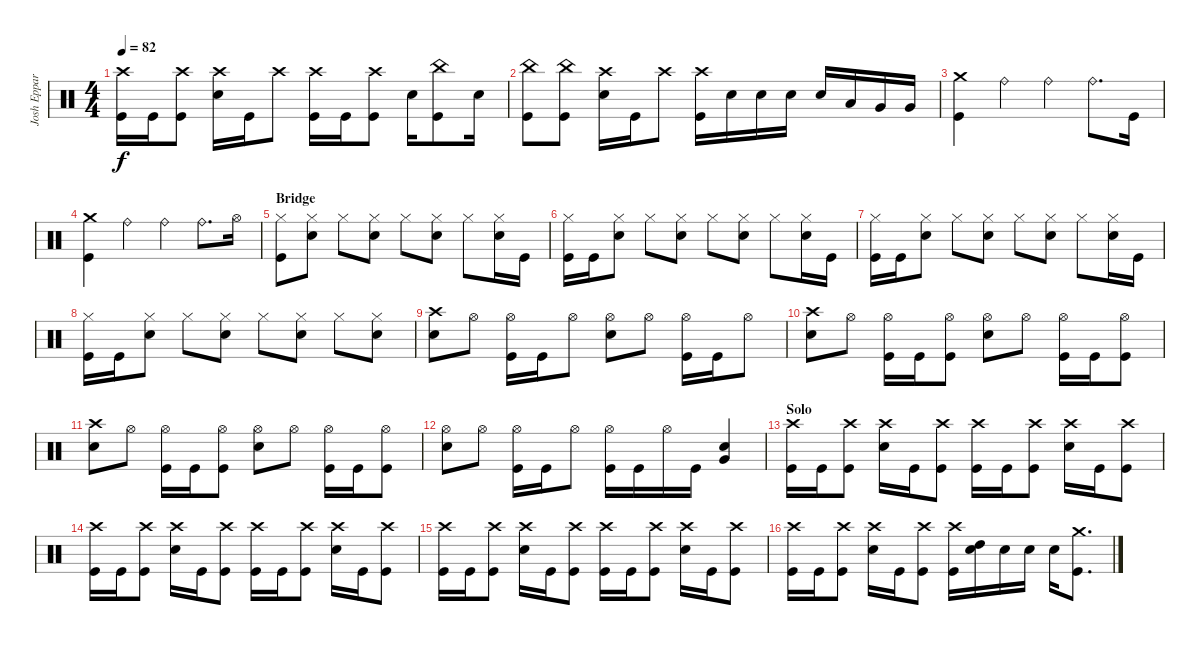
\track ("Josh Eppard" "Josh Eppar") {instrument percussion}
\staff {score}
\articulation defaults
\ts (4 4)
\tempo 82
\clef neutral
\ks c
("Crash high (hit)" "Kick (hit)").16{dy f} "Kick (hit)".16 ("Crash high (hit)" "Kick (hit)").8 ("Crash high (hit)" "Snare (hit) 2").16 "Kick (hit)".16 "Crash high (hit)".8 ("Crash high (hit)" "Kick (hit)").16 "Kick (hit)".16 ("Crash high (hit)" "Kick (hit)").8 "Snare (hit) 2".16 ("Kick (hit)" "China (hit)").8 "Snare (hit) 2".16 |
("Kick (hit)" "China (hit)").8 ("Kick (hit)" "China (hit)").8 ("Crash high (hit)" "Snare (hit) 2").16 "Kick (hit)".16 "Crash high (hit)".8 ("Crash high (hit)" "Kick (hit)").16 "Snare (hit) 2".16 "Snare (hit) 2".16 "Snare (hit) 2".16 "Snare (hit) 2".16 "Low Tom (hit)".16 "Very Low Tom (hit)".16 "Very Low Tom (hit)".16 |
("Kick (hit)" "Crash medium (hit)").4 "Ride (bell)".4 "Ride (bell)".4 "Ride (bell)".8{d} "Kick (hit)".16 |
("Kick (hit)" "Crash medium (hit)").4 "Ride (bell)".4 "Ride (bell)".4 "Ride (bell)".8{d} "Hi-Hat (open)".16 |
\section ("" "Bridge")
("Hi-Hat (closed)" "Kick (hit)").8 ("Snare (hit) 2" "Hi-Hat (closed)").8 "Hi-Hat (closed)".8 ("Hi-Hat (closed)" "Snare (hit) 2").8 "Hi-Hat (closed)".8 ("Hi-Hat (closed)" "Snare (hit) 2").8 "Hi-Hat (closed)".8 ("Hi-Hat (closed)" "Snare (hit) 2").16 "Kick (hit)".16 |
("Hi-Hat (closed)" "Kick (hit)").16 "Kick (hit)".16 ("Snare (hit) 2" "Hi-Hat (closed)").8 "Hi-Hat (closed)".8 ("Hi-Hat (closed)" "Snare (hit) 2").8 "Hi-Hat (closed)".8 ("Hi-Hat (closed)" "Snare (hit) 2").8 "Hi-Hat (closed)".8 ("Hi-Hat (closed)" "Snare (hit) 2").16 "Kick (hit)".16 |
("Hi-Hat (closed)" "Kick (hit)").16 "Kick (hit)".16 ("Snare (hit) 2" "Hi-Hat (closed)").8 "Hi-Hat (closed)".8 ("Hi-Hat (closed)" "Snare (hit) 2").8 "Hi-Hat (closed)".8 ("Hi-Hat (closed)" "Snare (hit) 2").8 "Hi-Hat (closed)".8 ("Hi-Hat (closed)" "Snare (hit) 2").16 "Kick (hit)".16 |
("Hi-Hat (closed)" "Kick (hit)").16 "Kick (hit)".16 ("Snare (hit) 2" "Hi-Hat (closed)").8 "Hi-Hat (closed)".8 ("Hi-Hat (closed)" "Snare (hit) 2").8 "Hi-Hat (closed)".8 ("Hi-Hat (closed)" "Snare (hit) 2").8 "Hi-Hat (closed)".8 ("Hi-Hat (closed)" "Snare (hit) 2").8 |
("Crash high (hit)" "Snare (hit) 2").8 "Hi-Hat (open)".8 ("Hi-Hat (open)" "Kick (hit)").16 "Kick (hit)".16 "Hi-Hat (open)".8 ("Hi-Hat (open)" "Snare (hit) 2").8 "Hi-Hat (open)".8 ("Hi-Hat (open)" "Kick (hit)").16 "Kick (hit)".16 "Hi-Hat (open)".8 |
("Crash high (hit)" "Snare (hit) 2").8 "Hi-Hat (open)".8 ("Hi-Hat (open)" "Kick (hit)").16 "Kick (hit)".16 ("Hi-Hat (open)" "Kick (hit)").8 ("Hi-Hat (open)" "Snare (hit) 2").8 "Hi-Hat (open)".8 ("Hi-Hat (open)" "Kick (hit)").16 "Kick (hit)".16 ("Hi-Hat (open)" "Kick (hit)").8 |
("Crash high (hit)" "Snare (hit) 2").8 "Hi-Hat (open)".8 ("Hi-Hat (open)" "Kick (hit)").16 "Kick (hit)".16 ("Hi-Hat (open)" "Kick (hit)").8 ("Hi-Hat (open)" "Snare (hit) 2").8 "Hi-Hat (open)".8 ("Hi-Hat (open)" "Kick (hit)").16 "Kick (hit)".16 ("Hi-Hat (open)" "Kick (hit)").8 |
("Snare (hit) 2" "Hi-Hat (open)").8 "Hi-Hat (open)".8 ("Hi-Hat (open)" "Kick (hit)").16 "Kick (hit)".16 "Hi-Hat (open)".8 ("Hi-Hat (open)" "Kick (hit)").16 "Kick (hit)".16 "Hi-Hat (open)".16 "Kick (hit)".16 ("Snare (hit) 2" "Very Low Tom (hit)").4 |
\section ("" "Solo")
("Crash high (hit)" "Kick (hit)").16 "Kick (hit)".16 ("Crash high (hit)" "Kick (hit)").8 ("Crash high (hit)" "Snare (hit) 2").16 "Kick (hit)".16 ("Crash high (hit)" "Kick (hit)").8 ("Crash high (hit)" "Kick (hit)").16 "Kick (hit)".16 ("Crash high (hit)" "Kick (hit)").8 ("Crash high (hit)" "Snare (hit) 2").16 "Kick (hit)".16 ("Crash high (hit)" "Kick (hit)").8 |
("Crash high (hit)" "Kick (hit)").16 "Kick (hit)".16 ("Crash high (hit)" "Kick (hit)").8 ("Crash high (hit)" "Snare (hit) 2").16 "Kick (hit)".16 ("Crash high (hit)" "Kick (hit)").8 ("Crash high (hit)" "Kick (hit)").16 "Kick (hit)".16 ("Crash high (hit)" "Kick (hit)").8 ("Crash high (hit)" "Snare (hit) 2").16 "Kick (hit)".16 ("Crash high (hit)" "Kick (hit)").8 |
("Crash high (hit)" "Kick (hit)").16 "Kick (hit)".16 ("Crash high (hit)" "Kick (hit)").8 ("Crash high (hit)" "Snare (hit) 2").16 "Kick (hit)".16 ("Crash high (hit)" "Kick (hit)").8 ("Crash high (hit)" "Kick (hit)").16 "Kick (hit)".16 ("Crash high (hit)" "Kick (hit)").8 ("Crash high (hit)" "Snare (hit) 2").16 "Kick (hit)".16 ("Crash high (hit)" "Kick (hit)").8 |
("Crash high (hit)" "Kick (hit)").16 "Kick (hit)".16 ("Crash high (hit)" "Kick (hit)").8 ("Crash high (hit)" "Snare (hit) 2").16 "Kick (hit)".16 ("Crash high (hit)" "Kick (hit)").8 ("Crash high (hit)" "Kick (hit)").16 ("Snare (hit) 2" "High Tom (hit)").16 "Snare (hit) 2".16 "Snare (hit) 2".16 "Snare (hit) 2".16 ("Kick (hit)" "Crash medium (hit)").8{d}
